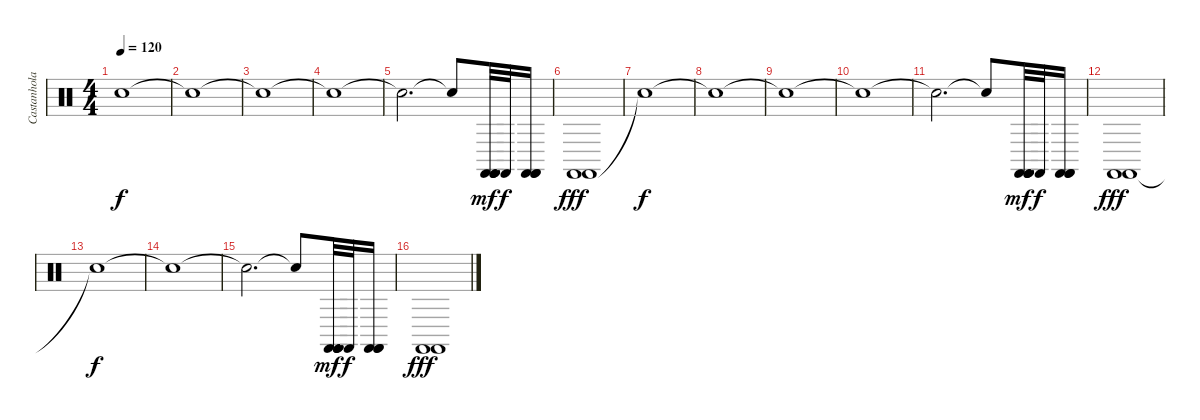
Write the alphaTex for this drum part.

\track ("Castanholas etc. ïåğêóññèÿ" "Castanhola") {instrument percussion}
\staff {score}
\articulation defaults
\ts (4 4)
\tempo 120
\clef neutral
\ks c "Snare (hit)"{t}.1{dy f}
|
"Snare (hit)"{t}.1 |
"Snare (hit)"{t}.1 |
"Snare (hit)"{t}.1 |
"Snare (hit)"{t}.2{d} "Snare (hit)"{t}.8 ("Castanets (hit)" "Castanets (hit)" "Castanets (hit)" "Castanets (hit)").32{dy mf} "Castanets (hit)".32{dy f} ("Castanets (hit)" "Castanets (hit)" "Castanets (hit)").16 |
("Castanets (hit)" "Castanets (hit)").1{dy fff} |
"Snare (hit)"{t}.1{dy f} |
"Snare (hit)"{t}.1 |
"Snare (hit)"{t}.1 |
"Snare (hit)"{t}.1 |
"Snare (hit)"{t}.2{d} "Snare (hit)"{t}.8 ("Castanets (hit)" "Castanets (hit)" "Castanets (hit)" "Castanets (hit)").32{dy mf} "Castanets (hit)".32{dy f} ("Castanets (hit)" "Castanets (hit)" "Castanets (hit)").16 |
("Castanets (hit)" "Castanets (hit)").1{dy fff} |
"Snare (hit)"{t}.1{dy f} |
"Snare (hit)"{t}.1 |
"Snare (hit)"{t}.2{d} "Snare (hit)"{t}.8 ("Castanets (hit)" "Castanets (hit)" "Castanets (hit)" "Castanets (hit)").32{dy mf} "Castanets (hit)".32{dy f} ("Castanets (hit)" "Castanets (hit)" "Castanets (hit)").16 |
("Castanets (hit)" "Castanets (hit)").1{dy fff}
